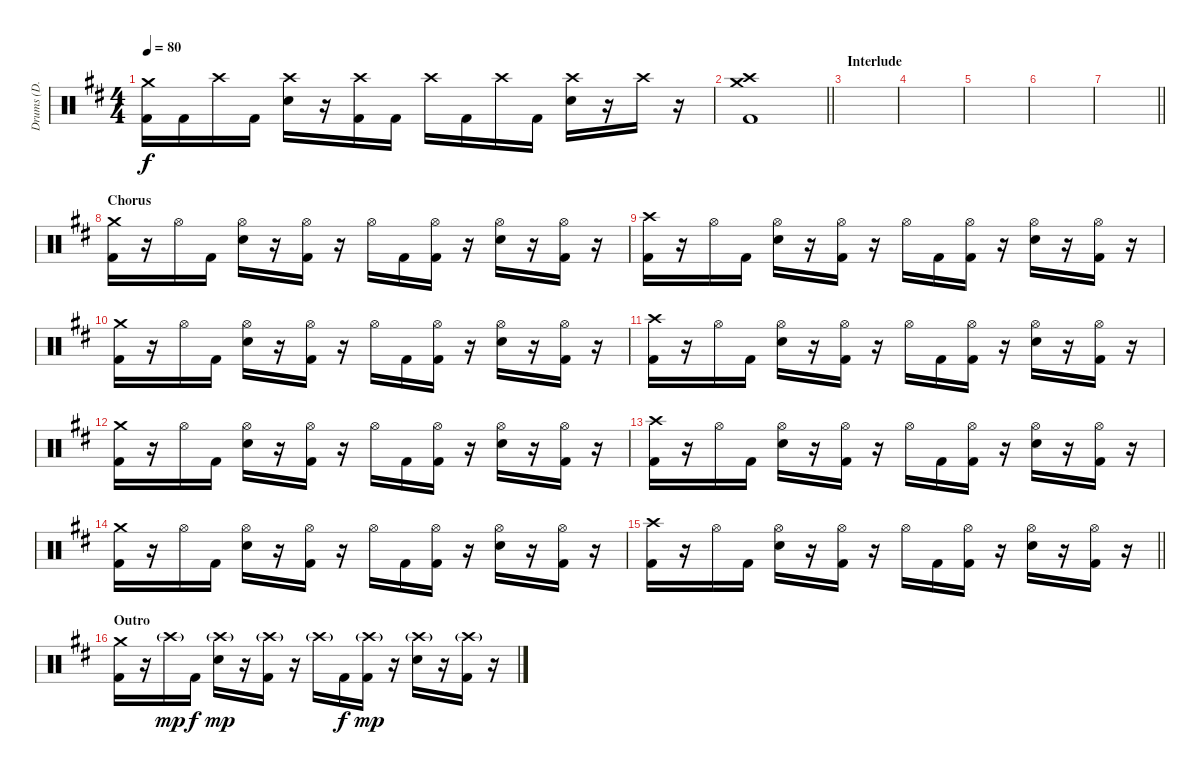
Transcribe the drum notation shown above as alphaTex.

\track ("Drums (D. Adair)" "Drums (D. ") {instrument percussion}
\staff {score}
\articulation defaults
\ts (4 4)
\tempo 80
\clef neutral
\ks d
("Crash medium (hit)" "Kick (hit) 2").16{dy f} "Kick (hit) 2".16 "Crash high (hit)".16 "Kick (hit) 2".16 ("Crash high (hit)" "Snare (hit) 2").16 r.16 ("Crash high (hit)" "Kick (hit) 2").16 "Kick (hit) 2".16 "Crash high (hit)".16 "Kick (hit) 2".16 "Crash high (hit)".16 "Kick (hit) 2".16 ("Crash high (hit)" "Snare (hit) 2").16 r.16 "Crash high (hit)".16 r.16 |
\barLineRight lightlight
("Crash high (hit)" "Crash medium (hit)" "Kick (hit) 2").1 |
\section ("" "Interlude")
|
|
|
|
\barLineRight lightlight
|
\section ("" "Chorus")
("Crash medium (hit)" "Kick (hit) 2").16 r.16 "Hi-Hat (open)".16 "Kick (hit) 2".16 ("Hi-Hat (open)" "Snare (hit) 2").16 r.16 ("Hi-Hat (open)" "Kick (hit) 2").16 r.16 "Hi-Hat (open)".16 "Kick (hit) 2".16 ("Hi-Hat (open)" "Kick (hit) 2").16 r.16 ("Hi-Hat (open)" "Snare (hit) 2").16 r.16 ("Hi-Hat (open)" "Kick (hit) 2").16 r.16 |
("Crash high (hit)" "Kick (hit) 2").16 r.16 "Hi-Hat (open)".16 "Kick (hit) 2".16 ("Hi-Hat (open)" "Snare (hit) 2").16 r.16 ("Hi-Hat (open)" "Kick (hit) 2").16 r.16 "Hi-Hat (open)".16 "Kick (hit) 2".16 ("Hi-Hat (open)" "Kick (hit) 2").16 r.16 ("Hi-Hat (open)" "Snare (hit) 2").16 r.16 ("Hi-Hat (open)" "Kick (hit) 2").16 r.16 |
("Crash medium (hit)" "Kick (hit) 2").16 r.16 "Hi-Hat (open)".16 "Kick (hit) 2".16 ("Hi-Hat (open)" "Snare (hit) 2").16 r.16 ("Hi-Hat (open)" "Kick (hit) 2").16 r.16 "Hi-Hat (open)".16 "Kick (hit) 2".16 ("Hi-Hat (open)" "Kick (hit) 2").16 r.16 ("Hi-Hat (open)" "Snare (hit) 2").16 r.16 ("Hi-Hat (open)" "Kick (hit) 2").16 r.16 |
("Crash high (hit)" "Kick (hit) 2").16 r.16 "Hi-Hat (open)".16 "Kick (hit) 2".16 ("Hi-Hat (open)" "Snare (hit) 2").16 r.16 ("Hi-Hat (open)" "Kick (hit) 2").16 r.16 "Hi-Hat (open)".16 "Kick (hit) 2".16 ("Hi-Hat (open)" "Kick (hit) 2").16 r.16 ("Hi-Hat (open)" "Snare (hit) 2").16 r.16 ("Hi-Hat (open)" "Kick (hit) 2").16 r.16 |
("Crash medium (hit)" "Kick (hit) 2").16 r.16 "Hi-Hat (open)".16 "Kick (hit) 2".16 ("Hi-Hat (open)" "Snare (hit) 2").16 r.16 ("Hi-Hat (open)" "Kick (hit) 2").16 r.16 "Hi-Hat (open)".16 "Kick (hit) 2".16 ("Hi-Hat (open)" "Kick (hit) 2").16 r.16 ("Hi-Hat (open)" "Snare (hit) 2").16 r.16 ("Hi-Hat (open)" "Kick (hit) 2").16 r.16 |
("Crash high (hit)" "Kick (hit) 2").16 r.16 "Hi-Hat (open)".16 "Kick (hit) 2".16 ("Hi-Hat (open)" "Snare (hit) 2").16 r.16 ("Hi-Hat (open)" "Kick (hit) 2").16 r.16 "Hi-Hat (open)".16 "Kick (hit) 2".16 ("Hi-Hat (open)" "Kick (hit) 2").16 r.16 ("Hi-Hat (open)" "Snare (hit) 2").16 r.16 ("Hi-Hat (open)" "Kick (hit) 2").16 r.16 |
("Crash medium (hit)" "Kick (hit) 2").16 r.16 "Hi-Hat (open)".16 "Kick (hit) 2".16 ("Hi-Hat (open)" "Snare (hit) 2").16 r.16 ("Hi-Hat (open)" "Kick (hit) 2").16 r.16 "Hi-Hat (open)".16 "Kick (hit) 2".16 ("Hi-Hat (open)" "Kick (hit) 2").16 r.16 ("Hi-Hat (open)" "Snare (hit) 2").16 r.16 ("Hi-Hat (open)" "Kick (hit) 2").16 r.16 |
\barLineRight lightlight
("Crash high (hit)" "Kick (hit) 2").16 r.16 "Hi-Hat (open)".16 "Kick (hit) 2".16 ("Hi-Hat (open)" "Snare (hit) 2").16 r.16 ("Hi-Hat (open)" "Kick (hit) 2").16 r.16 "Hi-Hat (open)".16 "Kick (hit) 2".16 ("Hi-Hat (open)" "Kick (hit) 2").16 r.16 ("Hi-Hat (open)" "Snare (hit) 2").16 r.16 ("Hi-Hat (open)" "Kick (hit) 2").16 r.16 |
\section ("" "Outro")
("Crash medium (hit)" "Kick (hit) 2").16 r.16 "Crash high (hit)"{g}.16{dy mp} "Kick (hit) 2".16{dy f} ("Crash high (hit)"{g} "Snare (hit) 2").16{dy mp} r.16 ("Crash high (hit)"{g} "Kick (hit) 2").16 r.16 "Crash high (hit)"{g}.16 "Kick (hit) 2".16{dy f} ("Crash high (hit)"{g} "Kick (hit) 2").16{dy mp} r.16 ("Crash high (hit)"{g} "Snare (hit) 2").16 r.16 ("Crash high (hit)"{g} "Kick (hit) 2").16 r.16
